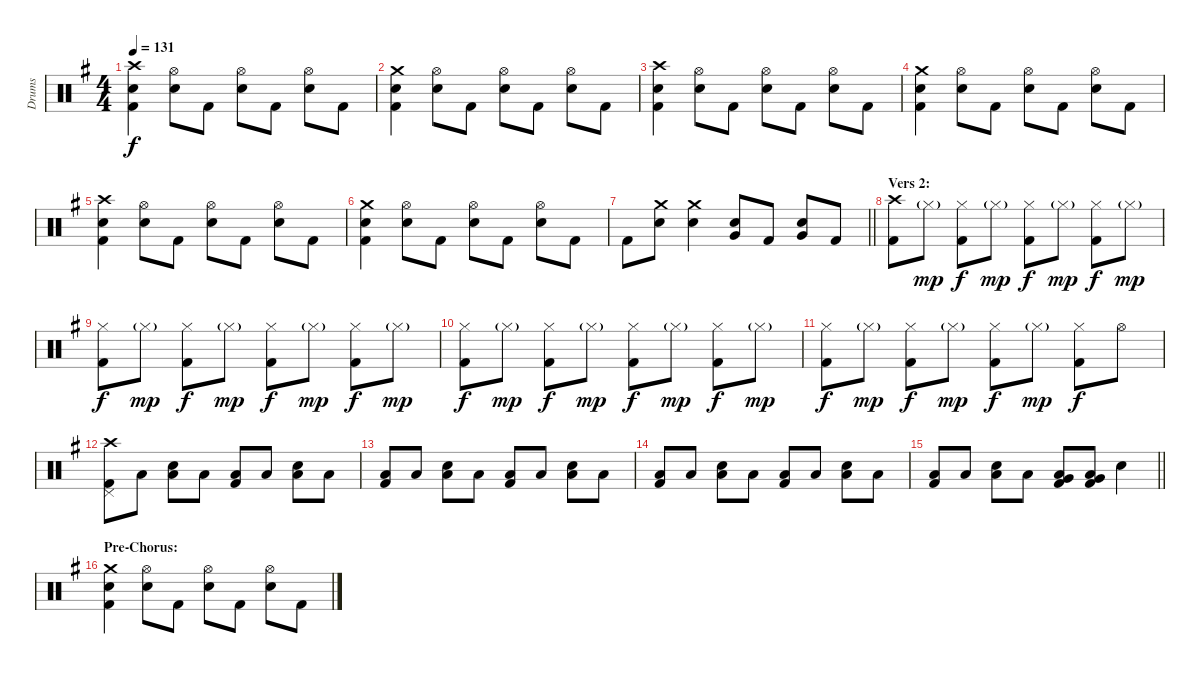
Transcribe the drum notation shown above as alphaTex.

\track ("Drums" "Drums") {instrument percussion}
\staff {score}
\articulation defaults
\ts (4 4)
\tempo 131
\clef neutral
\ks g
("Crash high (hit)" "Electric Snare (hit)" "Kick (hit) 2").4{dy f} ("Hi-Hat (open)" "Electric Snare (hit)").8 "Kick (hit) 2".8 ("Hi-Hat (open)" "Electric Snare (hit)").8 "Kick (hit) 2".8 ("Hi-Hat (open)" "Electric Snare (hit)").8 "Kick (hit) 2".8 |
("Crash medium (hit)" "Electric Snare (hit)" "Kick (hit) 2").4 ("Hi-Hat (open)" "Electric Snare (hit)").8 "Kick (hit) 2".8 ("Hi-Hat (open)" "Electric Snare (hit)").8 "Kick (hit) 2".8 ("Hi-Hat (open)" "Electric Snare (hit)").8 "Kick (hit) 2".8 |
("Crash high (hit)" "Electric Snare (hit)" "Kick (hit) 2").4 ("Hi-Hat (open)" "Electric Snare (hit)").8 "Kick (hit) 2".8 ("Hi-Hat (open)" "Electric Snare (hit)").8 "Kick (hit) 2".8 ("Hi-Hat (open)" "Electric Snare (hit)").8 "Kick (hit) 2".8 |
("Crash medium (hit)" "Electric Snare (hit)" "Kick (hit) 2").4 ("Hi-Hat (open)" "Electric Snare (hit)").8 "Kick (hit) 2".8 ("Hi-Hat (open)" "Electric Snare (hit)").8 "Kick (hit) 2".8 ("Hi-Hat (open)" "Electric Snare (hit)").8 "Kick (hit) 2".8 |
("Crash high (hit)" "Electric Snare (hit)" "Kick (hit) 2").4 ("Hi-Hat (open)" "Electric Snare (hit)").8 "Kick (hit) 2".8 ("Hi-Hat (open)" "Electric Snare (hit)").8 "Kick (hit) 2".8 ("Hi-Hat (open)" "Electric Snare (hit)").8 "Kick (hit) 2".8 |
("Crash medium (hit)" "Electric Snare (hit)" "Kick (hit) 2").4 ("Hi-Hat (open)" "Electric Snare (hit)").8 "Kick (hit) 2".8 ("Hi-Hat (open)" "Electric Snare (hit)").8 "Kick (hit) 2".8 ("Hi-Hat (open)" "Electric Snare (hit)").8 "Kick (hit) 2".8 |
\barLineRight lightlight "Kick (hit) 2".8
("Crash medium (hit)" "Electric Snare (hit)").8 ("Crash medium (hit)" "Electric Snare (hit)").4 ("Very Low Tom (hit)" "Electric Snare (hit)").8 "Kick (hit) 2".8 ("Very Low Tom (hit)" "Electric Snare (hit)").8 "Kick (hit) 2".8 |
\section ("" "Vers 2:")
("Crash high (hit)" "Kick (hit) 2").8 "Hi-Hat (closed)"{g}.8{dy mp} ("Hi-Hat (closed)" "Kick (hit) 2").8{dy f} "Hi-Hat (closed)"{g}.8{dy mp} ("Hi-Hat (closed)" "Kick (hit) 2").8{dy f} "Hi-Hat (closed)"{g}.8{dy mp} ("Hi-Hat (closed)" "Kick (hit) 2").8{dy f} "Hi-Hat (closed)"{g}.8{dy mp} |
("Hi-Hat (closed)" "Kick (hit) 2").8{dy f} "Hi-Hat (closed)"{g}.8{dy mp} ("Hi-Hat (closed)" "Kick (hit) 2").8{dy f} "Hi-Hat (closed)"{g}.8{dy mp} ("Hi-Hat (closed)" "Kick (hit) 2").8{dy f} "Hi-Hat (closed)"{g}.8{dy mp} ("Hi-Hat (closed)" "Kick (hit) 2").8{dy f} "Hi-Hat (closed)"{g}.8{dy mp} |
("Hi-Hat (closed)" "Kick (hit) 2").8{dy f} "Hi-Hat (closed)"{g}.8{dy mp} ("Hi-Hat (closed)" "Kick (hit) 2").8{dy f} "Hi-Hat (closed)"{g}.8{dy mp} ("Hi-Hat (closed)" "Kick (hit) 2").8{dy f} "Hi-Hat (closed)"{g}.8{dy mp} ("Hi-Hat (closed)" "Kick (hit) 2").8{dy f} "Hi-Hat (closed)"{g}.8{dy mp} |
("Hi-Hat (closed)" "Kick (hit) 2").8{dy f} "Hi-Hat (closed)"{g}.8{dy mp} ("Hi-Hat (closed)" "Kick (hit) 2").8{dy f} "Hi-Hat (closed)"{g}.8{dy mp} ("Hi-Hat (closed)" "Kick (hit) 2").8{dy f} "Hi-Hat (closed)"{g}.8{dy mp} ("Hi-Hat (closed)" "Kick (hit) 2").8{dy f} "Hi-Hat (open)".8 |
("Crash high (hit)" "Pedal Hi-Hat (hit)" "Kick (hit) 2").8 "Low Floor Tom (hit)".8 ("Low Floor Tom (hit)" "Electric Snare (hit)").8 "Low Floor Tom (hit)".8 ("Low Floor Tom (hit)" "Kick (hit) 2").8 "Low Floor Tom (hit)".8 ("Low Floor Tom (hit)" "Electric Snare (hit)").8 "Low Floor Tom (hit)".8 |
("Low Floor Tom (hit)" "Kick (hit) 2").8 "Low Floor Tom (hit)".8 ("Low Floor Tom (hit)" "Electric Snare (hit)").8 "Low Floor Tom (hit)".8 ("Low Floor Tom (hit)" "Kick (hit) 2").8 "Low Floor Tom (hit)".8 ("Low Floor Tom (hit)" "Electric Snare (hit)").8 "Low Floor Tom (hit)".8 |
("Low Floor Tom (hit)" "Kick (hit) 2").8 "Low Floor Tom (hit)".8 ("Low Floor Tom (hit)" "Electric Snare (hit)").8 "Low Floor Tom (hit)".8 ("Low Floor Tom (hit)" "Kick (hit) 2").8 "Low Floor Tom (hit)".8 ("Low Floor Tom (hit)" "Electric Snare (hit)").8 "Low Floor Tom (hit)".8 |
\barLineRight lightlight
("Low Floor Tom (hit)" "Kick (hit) 2").8 "Low Floor Tom (hit)".8 ("Low Floor Tom (hit)" "Electric Snare (hit)").8 "Low Floor Tom (hit)".8 ("Low Tom (hit)" "Very Low Tom (hit)" "Kick (hit) 2").8 ("Low Tom (hit)" "Very Low Tom (hit)" "Kick (hit) 2").8 "Electric Snare (hit)".4 |
\section ("" "Pre-Chorus:")
("Crash medium (hit)" "Electric Snare (hit)" "Kick (hit) 2").4 ("Hi-Hat (open)" "Electric Snare (hit)").8 "Kick (hit) 2".8 ("Hi-Hat (open)" "Electric Snare (hit)").8 "Kick (hit) 2".8 ("Hi-Hat (open)" "Electric Snare (hit)").8 "Kick (hit) 2".8
